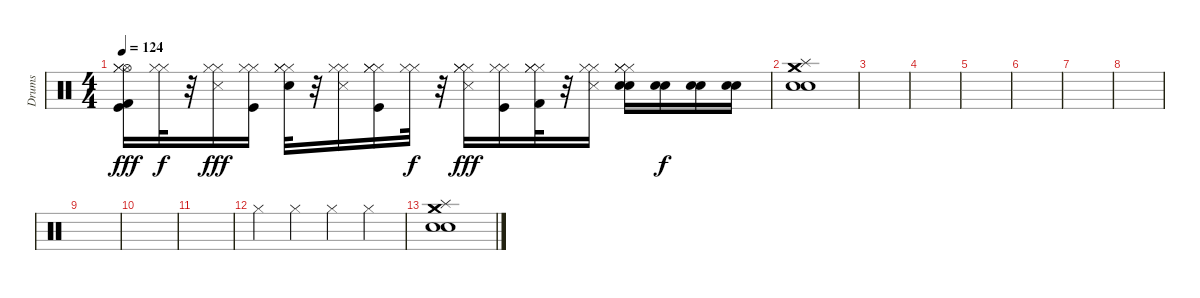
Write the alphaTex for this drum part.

\track ("Drums" "Drums") {instrument percussion}
\staff {score}
\articulation defaults
\ts (4 4)
\tempo 124
\clef neutral
\ks c
("Kick (hit)" "Kick (hit) 2" "Hi-Hat (open)" "Hi-Hat (closed)" "Hi-Hat (closed)").16{dy fff} ("Hi-Hat (closed)" "Hi-Hat (closed)").32{dy f} r.32 ("Metronome (hit)" "Hi-Hat (closed)" "Hi-Hat (closed)").16{dy fff} ("Kick (hit)" "Hi-Hat (closed)" "Hi-Hat (closed)").16 ("Hi-Hat (closed)" "Electric Snare (hit)" "Hi-Hat (closed)" "Hi-Hat (closed)").32 r.32 ("Metronome (hit)" "Hi-Hat (closed)" "Hi-Hat (closed)").16 ("Kick (hit)" "Hi-Hat (closed)" "Hi-Hat (closed)" "Hi-Hat (closed)").16 ("Hi-Hat (closed)" "Hi-Hat (closed)").32{dy f} r.32 ("Metronome (hit)" "Hi-Hat (closed)" "Hi-Hat (closed)" "Hi-Hat (closed)").16{dy fff} ("Kick (hit)" "Hi-Hat (closed)" "Hi-Hat (closed)").16 ("Kick (hit) 2" "Hi-Hat (closed)" "Hi-Hat (closed)" "Hi-Hat (closed)").32 r.32 ("Metronome (hit)" "Hi-Hat (closed)" "Hi-Hat (closed)").16 ("Hand Clap (hit)" "Hi-Hat (closed)" "Electric Snare (hit)" "Hi-Hat (closed)" "Hi-Hat (closed)").16 ("Snare (hit) 2" "Snare (hit) 2").16{dy f} ("Snare (hit) 2" "Snare (hit) 2").16 ("Snare (hit) 2" "Snare (hit) 2").16 |
("Snare (hit) 2" "Snare (hit) 2" "Splash (hit)" "Crash medium (hit)" "Crash medium (hit)").1 |
|
|
|
|
|
|
|
|
|
"Hi-Hat (closed)".4 "Hi-Hat (closed)".4 "Hi-Hat (closed)".4 "Hi-Hat (closed)".4 |
("Splash (hit)" "Crash medium (hit)" "Crash medium (hit)" "Snare (hit) 2" "Snare (hit) 2").1
